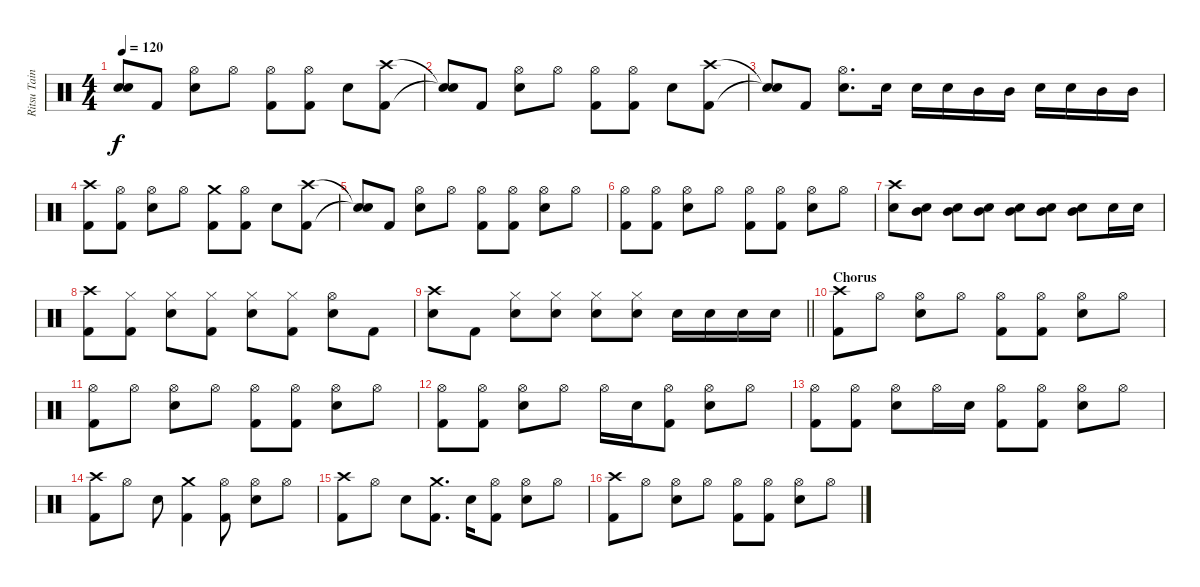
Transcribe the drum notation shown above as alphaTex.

\track ("Ritsu Tainaka" "Ritsu Tain") {instrument percussion}
\staff {score}
\articulation defaults
\ts (4 4)
\tempo 120
\clef neutral
\ks c
("Snare (hit)"{t} "Snare (hit)"{t}).8{dy f} "Kick (hit) 2".8 ("Hi-Hat (open)" "Snare (hit) 2").8 "Hi-Hat (open)".8 ("Hi-Hat (open)" "Kick (hit) 2").8 ("Hi-Hat (open)" "Kick (hit) 2").8 "Snare (hit) 2".8 ("Crash high (hit)" "Kick (hit) 2").8 |
("Snare (hit)"{t} "Snare (hit)"{t}).8 "Kick (hit) 2".8 ("Hi-Hat (open)" "Snare (hit) 2").8 "Hi-Hat (open)".8 ("Hi-Hat (open)" "Kick (hit) 2").8 ("Hi-Hat (open)" "Kick (hit) 2").8 "Snare (hit) 2".8 ("Crash high (hit)" "Kick (hit) 2").8 |
("Snare (hit)"{t} "Snare (hit)"{t}).8 "Kick (hit) 2".8 ("Hi-Hat (open)" "Snare (hit) 2").8{d} "Snare (hit) 2".16 "Snare (hit) 2".16 "Snare (hit) 2".16 "Mid Tom (hit)".16 "Mid Tom (hit)".16 "Snare (hit) 2".16 "Snare (hit) 2".16 "Mid Tom (hit)".16 "Mid Tom (hit)".16 |
("Crash high (hit)" "Kick (hit) 2").8 ("Hi-Hat (open)" "Kick (hit) 2").8 ("Hi-Hat (open)" "Snare (hit) 2").8 "Hi-Hat (open)".8 ("Crash medium (hit)" "Kick (hit) 2").8 ("Hi-Hat (open)" "Kick (hit) 2").8 "Snare (hit) 2".8 ("Crash high (hit)" "Kick (hit) 2").8 |
("Snare (hit)"{t} "Snare (hit)"{t}).8 "Kick (hit) 2".8 ("Hi-Hat (open)" "Snare (hit) 2").8 "Hi-Hat (open)".8 ("Hi-Hat (open)" "Kick (hit) 2").8 ("Hi-Hat (open)" "Kick (hit) 2").8 ("Hi-Hat (open)" "Snare (hit) 2").8 "Hi-Hat (open)".8 |
("Hi-Hat (open)" "Kick (hit) 2").8 ("Hi-Hat (open)" "Kick (hit) 2").8 ("Hi-Hat (open)" "Snare (hit) 2").8 "Hi-Hat (open)".8 ("Hi-Hat (open)" "Kick (hit) 2").8 ("Hi-Hat (open)" "Kick (hit) 2").8 ("Hi-Hat (open)" "Snare (hit) 2").8 "Hi-Hat (open)".8 |
("Crash high (hit)" "Snare (hit) 2").8 ("Mid Tom (hit)" "Snare (hit) 2").8 ("Mid Tom (hit)" "Snare (hit) 2").8 ("Mid Tom (hit)" "Snare (hit) 2").8 ("Mid Tom (hit)" "Snare (hit) 2").8 ("Mid Tom (hit)" "Snare (hit) 2").8 ("Mid Tom (hit)" "Snare (hit) 2").8 "Snare (hit) 2".16 "Snare (hit) 2".16 |
("Crash high (hit)" "Kick (hit) 2").8 ("Hi-Hat (closed)" "Kick (hit) 2").8 ("Hi-Hat (closed)" "Snare (hit) 2").8 ("Hi-Hat (closed)" "Kick (hit) 2").8 ("Hi-Hat (closed)" "Snare (hit) 2").8 ("Hi-Hat (closed)" "Kick (hit) 2").8 ("Hi-Hat (open)" "Snare (hit) 2").8 "Kick (hit) 2".8 |
\barLineRight lightlight
("Crash high (hit)" "Snare (hit) 2").8 "Kick (hit) 2".8 ("Hi-Hat (closed)" "Snare (hit) 2").8 ("Hi-Hat (closed)" "Snare (hit) 2").8 ("Hi-Hat (closed)" "Snare (hit) 2").8 ("Hi-Hat (closed)" "Snare (hit) 2").8 "Snare (hit) 2".16 "Snare (hit) 2".16 "Snare (hit) 2".16 "Snare (hit) 2".16 |
\section ("" "Chorus")
("Crash high (hit)" "Kick (hit) 2").8 "Hi-Hat (open)".8 ("Hi-Hat (open)" "Snare (hit) 2").8 "Hi-Hat (open)".8 ("Hi-Hat (open)" "Kick (hit) 2").8 ("Hi-Hat (open)" "Kick (hit) 2").8 ("Hi-Hat (open)" "Snare (hit) 2").8 "Hi-Hat (open)".8 |
("Hi-Hat (open)" "Kick (hit) 2").8 "Hi-Hat (open)".8 ("Hi-Hat (open)" "Snare (hit) 2").8 "Hi-Hat (open)".8 ("Hi-Hat (open)" "Kick (hit) 2").8 ("Hi-Hat (open)" "Kick (hit) 2").8 ("Hi-Hat (open)" "Snare (hit) 2").8 "Hi-Hat (open)".8 |
("Hi-Hat (open)" "Kick (hit) 2").8 ("Hi-Hat (open)" "Kick (hit) 2").8 ("Hi-Hat (open)" "Snare (hit) 2").8 "Hi-Hat (open)".8 "Hi-Hat (open)".16 "Snare (hit) 2".16 ("Hi-Hat (open)" "Kick (hit) 2").8 ("Hi-Hat (open)" "Snare (hit) 2").8 "Hi-Hat (open)".8 |
("Hi-Hat (open)" "Kick (hit) 2").8 ("Hi-Hat (open)" "Kick (hit) 2").8 ("Hi-Hat (open)" "Snare (hit) 2").8 "Hi-Hat (open)".16 "Snare (hit) 2".16 ("Hi-Hat (open)" "Kick (hit) 2").8 ("Hi-Hat (open)" "Kick (hit) 2").8 ("Hi-Hat (open)" "Snare (hit) 2").8 "Hi-Hat (open)".8 |
("Crash high (hit)" "Kick (hit) 2").8 "Hi-Hat (open)".8 "Snare (hit) 2".8 ("Crash medium (hit)" "Kick (hit) 2").4 ("Hi-Hat (open)" "Kick (hit) 2").8 ("Hi-Hat (open)" "Snare (hit) 2").8 "Hi-Hat (open)".8 |
("Crash high (hit)" "Kick (hit) 2").8 "Hi-Hat (open)".8 "Snare (hit) 2".8 ("Crash medium (hit)" "Kick (hit) 2").8{d} "Snare (hit) 2".16 ("Hi-Hat (open)" "Kick (hit) 2").8 ("Hi-Hat (open)" "Snare (hit) 2").8 "Hi-Hat (open)".8 |
("Crash high (hit)" "Kick (hit) 2").8 "Hi-Hat (open)".8 ("Hi-Hat (open)" "Snare (hit) 2").8 "Hi-Hat (open)".8 ("Hi-Hat (open)" "Kick (hit) 2").8 ("Hi-Hat (open)" "Kick (hit) 2").8 ("Hi-Hat (open)" "Snare (hit) 2").8 "Hi-Hat (open)".8
